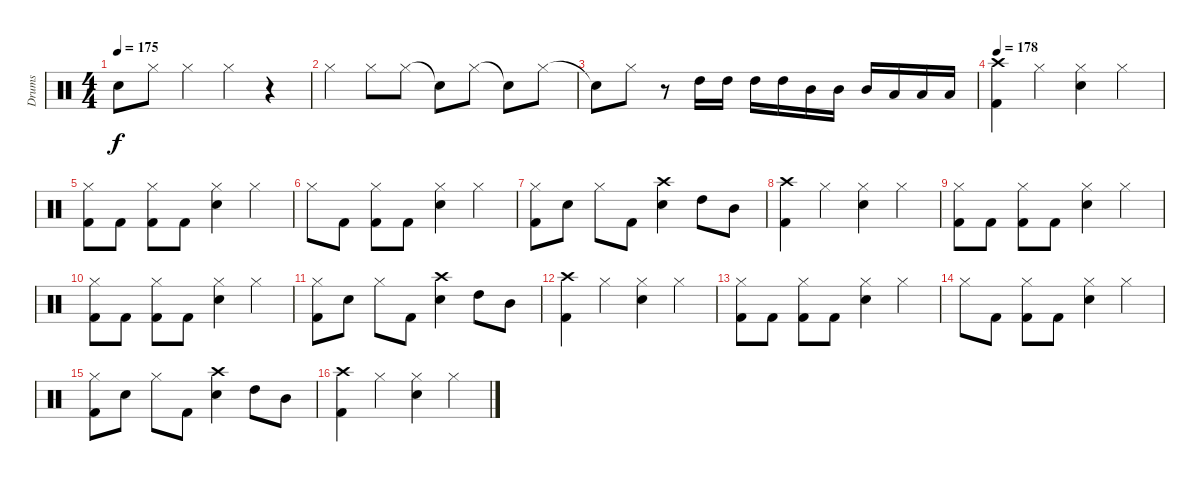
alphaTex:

\track ("Drums" "Drums") {mute instrument percussion}
\staff {score}
\articulation defaults
\ts (4 4)
\tempo 175
\clef neutral
\ks c "Snare (hit)"{t}.8{dy f} "Hi-Hat (closed)".8 "Hi-Hat (closed)".4 "Hi-Hat (closed)".4
r.4 |
"Hi-Hat (closed)".4 "Hi-Hat (closed)".8 "Hi-Hat (closed)".8 "Snare (hit)"{t}.8 "Hi-Hat (closed)".8 "Snare (hit)"{t}.8 "Hi-Hat (closed)".8 |
"Snare (hit)"{t}.8 "Hi-Hat (closed)".8 r.8 "High Tom (hit)".16 "High Tom (hit)".16 "High Tom (hit)".16 "High Tom (hit)".16 "Mid Tom (hit)".16 "Mid Tom (hit)".16 "Mid Tom (hit)".16 "Low Tom (hit)".16 "Low Tom (hit)".16 "Low Tom (hit)".16 |
\tempo 178
("Crash high (hit)" "Kick (hit) 2").4 "Hi-Hat (closed)".4 ("Hi-Hat (closed)" "Electric Snare (hit)").4 "Hi-Hat (closed)".4 |
("Hi-Hat (closed)" "Kick (hit) 2").8 "Kick (hit) 2".8 ("Hi-Hat (closed)" "Kick (hit) 2").8 "Kick (hit) 2".8 ("Hi-Hat (closed)" "Electric Snare (hit)").4 "Hi-Hat (closed)".4 |
"Hi-Hat (closed)".8 "Kick (hit) 2".8 ("Hi-Hat (closed)" "Kick (hit) 2").8 "Kick (hit) 2".8 ("Hi-Hat (closed)" "Electric Snare (hit)").4 "Hi-Hat (closed)".4 |
("Hi-Hat (closed)" "Kick (hit) 2").8 "Electric Snare (hit)".8 "Hi-Hat (closed)".8 "Kick (hit) 2".8 ("Crash high (hit)" "Electric Snare (hit)").4 "High Tom (hit)".8 "Mid Tom (hit)".8 |
("Crash high (hit)" "Kick (hit) 2").4 "Hi-Hat (closed)".4 ("Hi-Hat (closed)" "Electric Snare (hit)").4 "Hi-Hat (closed)".4 |
("Hi-Hat (closed)" "Kick (hit) 2").8 "Kick (hit) 2".8 ("Hi-Hat (closed)" "Kick (hit) 2").8 "Kick (hit) 2".8 ("Hi-Hat (closed)" "Electric Snare (hit)").4 "Hi-Hat (closed)".4 |
("Hi-Hat (closed)" "Kick (hit) 2").8 "Kick (hit) 2".8 ("Hi-Hat (closed)" "Kick (hit) 2").8 "Kick (hit) 2".8 ("Hi-Hat (closed)" "Electric Snare (hit)").4 "Hi-Hat (closed)".4 |
("Hi-Hat (closed)" "Kick (hit) 2").8 "Electric Snare (hit)".8 "Hi-Hat (closed)".8 "Kick (hit) 2".8 ("Crash high (hit)" "Electric Snare (hit)").4 "High Tom (hit)".8 "Mid Tom (hit)".8 |
("Crash high (hit)" "Kick (hit) 2").4 "Hi-Hat (closed)".4 ("Hi-Hat (closed)" "Electric Snare (hit)").4 "Hi-Hat (closed)".4 |
("Hi-Hat (closed)" "Kick (hit) 2").8 "Kick (hit) 2".8 ("Hi-Hat (closed)" "Kick (hit) 2").8 "Kick (hit) 2".8 ("Hi-Hat (closed)" "Electric Snare (hit)").4 "Hi-Hat (closed)".4 |
"Hi-Hat (closed)".8 "Kick (hit) 2".8 ("Hi-Hat (closed)" "Kick (hit) 2").8 "Kick (hit) 2".8 ("Hi-Hat (closed)" "Electric Snare (hit)").4 "Hi-Hat (closed)".4 |
("Hi-Hat (closed)" "Kick (hit) 2").8 "Electric Snare (hit)".8 "Hi-Hat (closed)".8 "Kick (hit) 2".8 ("Crash high (hit)" "Electric Snare (hit)").4 "High Tom (hit)".8 "Mid Tom (hit)".8 |
("Crash high (hit)" "Kick (hit) 2").4 "Hi-Hat (closed)".4 ("Hi-Hat (closed)" "Electric Snare (hit)").4 "Hi-Hat (closed)".4
